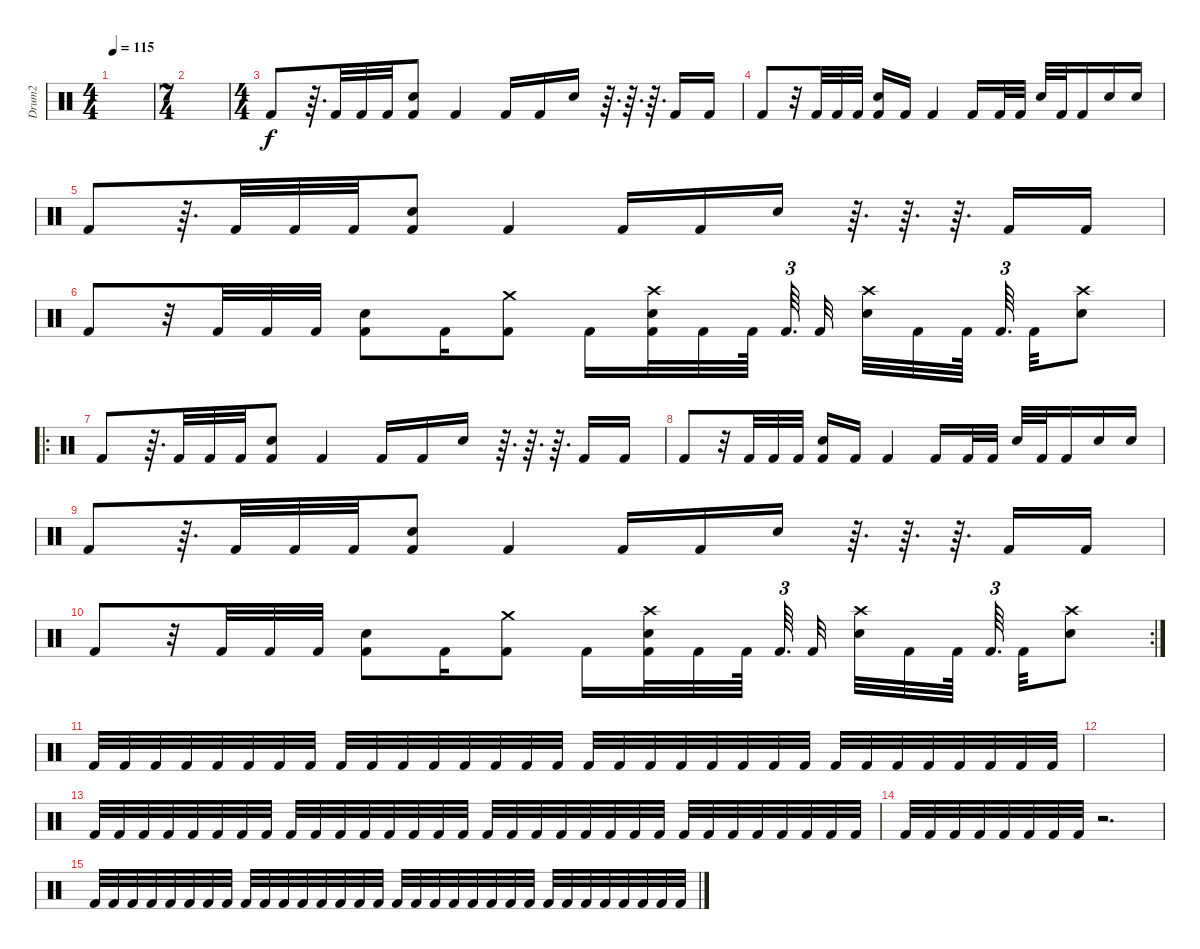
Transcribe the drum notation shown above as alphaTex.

\track ("Drum2" "Drum2") {instrument percussion}
\staff {score}
\articulation defaults
\ts (4 4)
\tempo 115
\clef neutral
\ks c
|
\ts (7 4)
|
\ts (4 4)
"Kick (hit) 2".8 r.64{d} "Kick (hit) 2".32 "Kick (hit) 2".32 "Kick (hit) 2".32 ("Kick (hit) 2" "Snare (hit) 2").8 "Kick (hit) 2".4 "Kick (hit) 2".16 "Kick (hit) 2".16 "Snare (hit) 2".16 r.64{d} r.64{d} r.64{d} "Kick (hit) 2".16 "Kick (hit) 2".16 |
"Kick (hit) 2".8 r.32 "Kick (hit) 2".32 "Kick (hit) 2".32 "Kick (hit) 2".32 ("Kick (hit) 2" "Snare (hit) 2").16 "Kick (hit) 2".16 "Kick (hit) 2".4 "Kick (hit) 2".16 "Kick (hit) 2".32 "Kick (hit) 2".32 "Snare (hit) 2".32 "Kick (hit) 2".32 "Kick (hit) 2".16 "Snare (hit) 2".16 "Snare (hit) 2".16 |
"Kick (hit) 2".8 r.64{d} "Kick (hit) 2".32 "Kick (hit) 2".32 "Kick (hit) 2".32 ("Kick (hit) 2" "Snare (hit) 2").8 "Kick (hit) 2".4 "Kick (hit) 2".16 "Kick (hit) 2".16 "Snare (hit) 2".16 r.64{d} r.64{d} r.64{d} "Kick (hit) 2".16 "Kick (hit) 2".16 |
"Kick (hit) 2".8 r.32 "Kick (hit) 2".32 "Kick (hit) 2".32 "Kick (hit) 2".32 ("Kick (hit) 2" "Snare (hit) 2").8 "Kick (hit) 2".16 ("Kick (hit) 2" "Crash medium (hit)").8 "Kick (hit) 2".16 ("Kick (hit) 2" "Crash high (hit)" "Snare (hit) 2").32 "Kick (hit) 2".32 "Kick (hit) 2".64{beam splitsecondary} "Kick (hit) 2".64{d tu (3 2)} "Kick (hit) 2".32 ("Crash high (hit)" "Snare (hit) 2").32 "Kick (hit) 2".32 "Kick (hit) 2".64{beam splitsecondary} "Kick (hit) 2".64{d tu (3 2) beam splitsecondary} "Kick (hit) 2".32 ("Crash high (hit)" "Snare (hit) 2").8 |
\ro "Kick (hit) 2".8
r.64{d} "Kick (hit) 2".32 "Kick (hit) 2".32 "Kick (hit) 2".32 ("Kick (hit) 2" "Snare (hit) 2").8 "Kick (hit) 2".4 "Kick (hit) 2".16 "Kick (hit) 2".16 "Snare (hit) 2".16 r.64{d} r.64{d} r.64{d} "Kick (hit) 2".16 "Kick (hit) 2".16 |
"Kick (hit) 2".8 r.32 "Kick (hit) 2".32 "Kick (hit) 2".32 "Kick (hit) 2".32 ("Kick (hit) 2" "Snare (hit) 2").16 "Kick (hit) 2".16 "Kick (hit) 2".4 "Kick (hit) 2".16 "Kick (hit) 2".32 "Kick (hit) 2".32 "Snare (hit) 2".32 "Kick (hit) 2".32 "Kick (hit) 2".16 "Snare (hit) 2".16 "Snare (hit) 2".16 |
"Kick (hit) 2".8 r.64{d} "Kick (hit) 2".32 "Kick (hit) 2".32 "Kick (hit) 2".32 ("Kick (hit) 2" "Snare (hit) 2").8 "Kick (hit) 2".4 "Kick (hit) 2".16 "Kick (hit) 2".16 "Snare (hit) 2".16 r.64{d} r.64{d} r.64{d} "Kick (hit) 2".16 "Kick (hit) 2".16 |
\rc 2 "Kick (hit) 2".8
r.32 "Kick (hit) 2".32 "Kick (hit) 2".32 "Kick (hit) 2".32 ("Kick (hit) 2" "Snare (hit) 2").8 "Kick (hit) 2".16 ("Kick (hit) 2" "Crash medium (hit)").8 "Kick (hit) 2".16 ("Kick (hit) 2" "Crash high (hit)" "Snare (hit) 2").32 "Kick (hit) 2".32 "Kick (hit) 2".64{beam splitsecondary} "Kick (hit) 2".64{d tu (3 2)} "Kick (hit) 2".32 ("Crash high (hit)" "Snare (hit) 2").32 "Kick (hit) 2".32 "Kick (hit) 2".64{beam splitsecondary} "Kick (hit) 2".64{d tu (3 2) beam splitsecondary} "Kick (hit) 2".32 ("Crash high (hit)" "Snare (hit) 2").8 |
"Kick (hit) 2".32 "Kick (hit) 2".32 "Kick (hit) 2".32 "Kick (hit) 2".32 "Kick (hit) 2".32 "Kick (hit) 2".32 "Kick (hit) 2".32 "Kick (hit) 2".32 "Kick (hit) 2".32 "Kick (hit) 2".32 "Kick (hit) 2".32 "Kick (hit) 2".32 "Kick (hit) 2".32 "Kick (hit) 2".32 "Kick (hit) 2".32 "Kick (hit) 2".32 "Kick (hit) 2".32 "Kick (hit) 2".32 "Kick (hit) 2".32 "Kick (hit) 2".32 "Kick (hit) 2".32 "Kick (hit) 2".32 "Kick (hit) 2".32 "Kick (hit) 2".32 "Kick (hit) 2".32 "Kick (hit) 2".32 "Kick (hit) 2".32 "Kick (hit) 2".32 "Kick (hit) 2".32 "Kick (hit) 2".32 "Kick (hit) 2".32 "Kick (hit) 2".32 |
|
"Kick (hit) 2".32 "Kick (hit) 2".32 "Kick (hit) 2".32 "Kick (hit) 2".32 "Kick (hit) 2".32 "Kick (hit) 2".32 "Kick (hit) 2".32 "Kick (hit) 2".32 "Kick (hit) 2".32 "Kick (hit) 2".32 "Kick (hit) 2".32 "Kick (hit) 2".32 "Kick (hit) 2".32 "Kick (hit) 2".32 "Kick (hit) 2".32 "Kick (hit) 2".32 "Kick (hit) 2".32 "Kick (hit) 2".32 "Kick (hit) 2".32 "Kick (hit) 2".32 "Kick (hit) 2".32 "Kick (hit) 2".32 "Kick (hit) 2".32 "Kick (hit) 2".32 "Kick (hit) 2".32 "Kick (hit) 2".32 "Kick (hit) 2".32 "Kick (hit) 2".32 "Kick (hit) 2".32 "Kick (hit) 2".32 "Kick (hit) 2".32 "Kick (hit) 2".32 |
"Kick (hit) 2".32 "Kick (hit) 2".32 "Kick (hit) 2".32 "Kick (hit) 2".32 "Kick (hit) 2".32 "Kick (hit) 2".32 "Kick (hit) 2".32 "Kick (hit) 2".32 r.2{d} |
"Kick (hit) 2".32 "Kick (hit) 2".32 "Kick (hit) 2".32 "Kick (hit) 2".32 "Kick (hit) 2".32 "Kick (hit) 2".32 "Kick (hit) 2".32 "Kick (hit) 2".32 "Kick (hit) 2".32 "Kick (hit) 2".32 "Kick (hit) 2".32 "Kick (hit) 2".32 "Kick (hit) 2".32 "Kick (hit) 2".32 "Kick (hit) 2".32 "Kick (hit) 2".32 "Kick (hit) 2".32 "Kick (hit) 2".32 "Kick (hit) 2".32 "Kick (hit) 2".32 "Kick (hit) 2".32 "Kick (hit) 2".32 "Kick (hit) 2".32 "Kick (hit) 2".32 "Kick (hit) 2".32 "Kick (hit) 2".32 "Kick (hit) 2".32 "Kick (hit) 2".32 "Kick (hit) 2".32 "Kick (hit) 2".32 "Kick (hit) 2".32 "Kick (hit) 2".32
